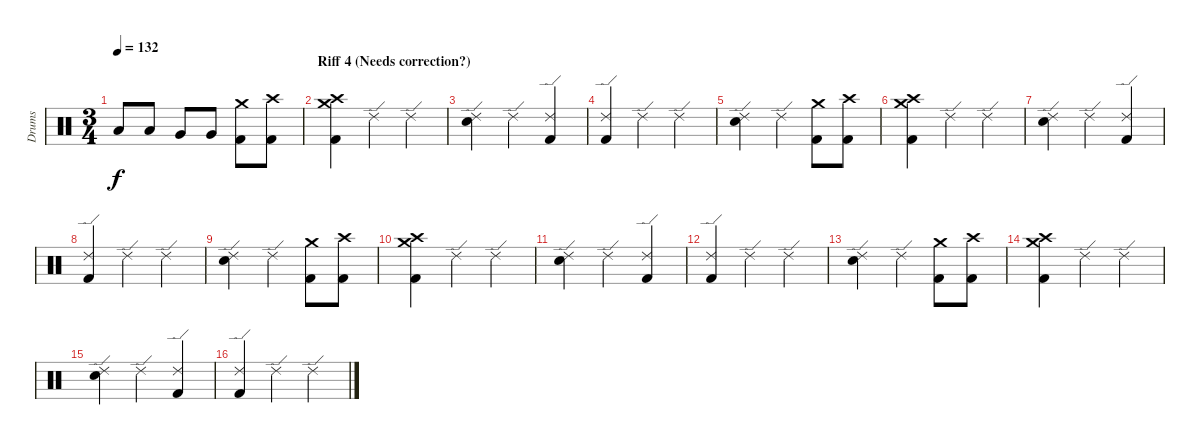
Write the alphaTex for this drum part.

\track ("Drums" "Drums") {instrument percussion}
\staff {score}
\articulation defaults
\ts (3 4)
\tempo 132
\clef neutral
\ks c "Low Tom (hit)".8{dy f} "Low Tom (hit)".8 "Very Low Tom (hit)".8 "Very Low Tom (hit)".8
("Crash medium (hit)" "Kick (hit) 2").8 ("Crash high (hit)" "Kick (hit) 2").8 |
\section ("" "Riff 4 (Needs correction?)")
("Crash high (hit)" "Crash medium (hit)" "Kick (hit) 2").4 "Ride (edge) 2".4 "Ride (edge) 2".4 |
("Ride (edge) 2" "Electric Snare (hit)").4 "Ride (edge) 2".4 ("Ride (edge) 2" "Kick (hit) 2").4 |
("Ride (edge) 2" "Kick (hit) 2").4 "Ride (edge) 2".4 "Ride (edge) 2".4 |
("Ride (edge) 2" "Electric Snare (hit)").4 "Ride (edge) 2".4 ("Crash medium (hit)" "Kick (hit) 2").8 ("Crash high (hit)" "Kick (hit) 2").8 |
("Crash high (hit)" "Crash medium (hit)" "Kick (hit) 2").4 "Ride (edge) 2".4 "Ride (edge) 2".4 |
("Ride (edge) 2" "Electric Snare (hit)").4 "Ride (edge) 2".4 ("Ride (edge) 2" "Kick (hit) 2").4 |
("Ride (edge) 2" "Kick (hit) 2").4 "Ride (edge) 2".4 "Ride (edge) 2".4 |
("Ride (edge) 2" "Electric Snare (hit)").4 "Ride (edge) 2".4 ("Crash medium (hit)" "Kick (hit) 2").8 ("Crash high (hit)" "Kick (hit) 2").8 |
("Crash high (hit)" "Crash medium (hit)" "Kick (hit) 2").4 "Ride (edge) 2".4 "Ride (edge) 2".4 |
("Ride (edge) 2" "Electric Snare (hit)").4 "Ride (edge) 2".4 ("Ride (edge) 2" "Kick (hit) 2").4 |
("Ride (edge) 2" "Kick (hit) 2").4 "Ride (edge) 2".4 "Ride (edge) 2".4 |
("Ride (edge) 2" "Electric Snare (hit)").4 "Ride (edge) 2".4 ("Crash medium (hit)" "Kick (hit) 2").8 ("Crash high (hit)" "Kick (hit) 2").8 |
("Crash high (hit)" "Crash medium (hit)" "Kick (hit) 2").4 "Ride (edge) 2".4 "Ride (edge) 2".4 |
("Ride (edge) 2" "Electric Snare (hit)").4 "Ride (edge) 2".4 ("Ride (edge) 2" "Kick (hit) 2").4 |
("Ride (edge) 2" "Kick (hit) 2").4 "Ride (edge) 2".4 "Ride (edge) 2".4
